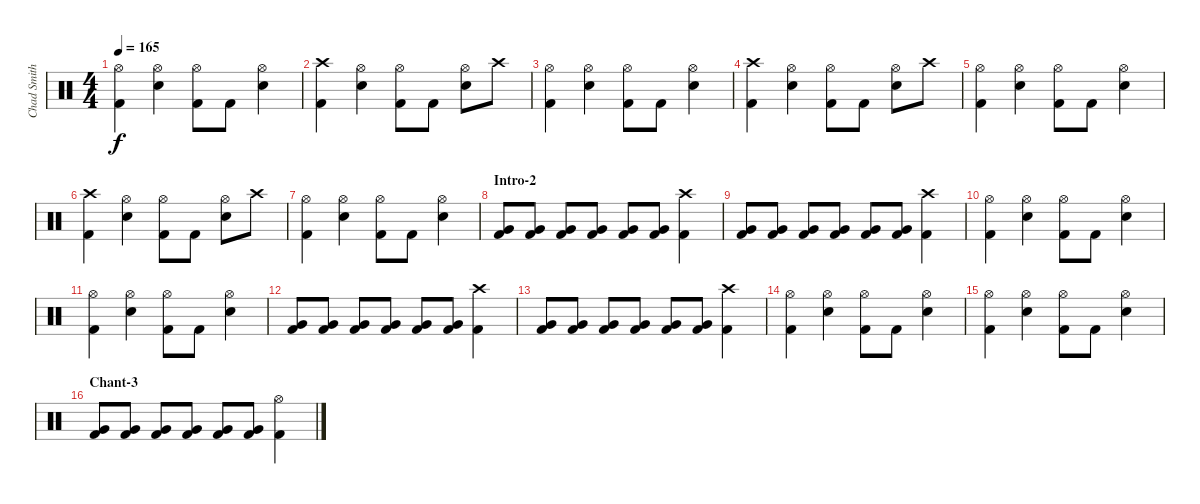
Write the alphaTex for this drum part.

\track ("Chad Smith" "Chad Smith") {instrument percussion}
\staff {score}
\articulation defaults
\ts (4 4)
\tempo 165
\clef neutral
\ks c
("Hi-Hat (open)" "Kick (hit) 2").4{dy f} ("Hi-Hat (open)" "Snare (hit) 2").4 ("Hi-Hat (open)" "Kick (hit) 2").8 "Kick (hit) 2".8 ("Hi-Hat (open)" "Snare (hit) 2").4 |
("Crash high (hit)" "Kick (hit) 2").4 ("Hi-Hat (open)" "Snare (hit) 2").4 ("Hi-Hat (open)" "Kick (hit) 2").8 "Kick (hit) 2".8 ("Hi-Hat (open)" "Snare (hit) 2").8 "Crash high (hit)".8 |
("Hi-Hat (open)" "Kick (hit) 2").4 ("Hi-Hat (open)" "Snare (hit) 2").4 ("Hi-Hat (open)" "Kick (hit) 2").8 "Kick (hit) 2".8 ("Hi-Hat (open)" "Snare (hit) 2").4 |
("Crash high (hit)" "Kick (hit) 2").4 ("Hi-Hat (open)" "Snare (hit) 2").4 ("Hi-Hat (open)" "Kick (hit) 2").8 "Kick (hit) 2".8 ("Hi-Hat (open)" "Snare (hit) 2").8 "Crash high (hit)".8 |
("Hi-Hat (open)" "Kick (hit) 2").4 ("Hi-Hat (open)" "Snare (hit) 2").4 ("Hi-Hat (open)" "Kick (hit) 2").8 "Kick (hit) 2".8 ("Hi-Hat (open)" "Snare (hit) 2").4 |
("Crash high (hit)" "Kick (hit) 2").4 ("Hi-Hat (open)" "Snare (hit) 2").4 ("Hi-Hat (open)" "Kick (hit) 2").8 "Kick (hit) 2".8 ("Hi-Hat (open)" "Snare (hit) 2").8 "Crash high (hit)".8 |
("Hi-Hat (open)" "Kick (hit) 2").4 ("Hi-Hat (open)" "Snare (hit) 2").4 ("Hi-Hat (open)" "Kick (hit) 2").8 "Kick (hit) 2".8 ("Hi-Hat (open)" "Snare (hit) 2").4 |
\section ("" "Intro-2")
("Kick (hit) 2" "Very Low Tom (hit)").8 ("Kick (hit) 2" "Very Low Tom (hit)").8 ("Kick (hit) 2" "Very Low Tom (hit)").8 ("Kick (hit) 2" "Very Low Tom (hit)").8 ("Kick (hit) 2" "Very Low Tom (hit)").8 ("Kick (hit) 2" "Very Low Tom (hit)").8 ("Crash high (hit)" "Kick (hit) 2").4 |
("Kick (hit) 2" "Very Low Tom (hit)").8 ("Kick (hit) 2" "Very Low Tom (hit)").8 ("Kick (hit) 2" "Very Low Tom (hit)").8 ("Kick (hit) 2" "Very Low Tom (hit)").8 ("Kick (hit) 2" "Very Low Tom (hit)").8 ("Kick (hit) 2" "Very Low Tom (hit)").8 ("Crash high (hit)" "Kick (hit) 2").4 |
("Hi-Hat (open)" "Kick (hit) 2").4 ("Hi-Hat (open)" "Snare (hit) 2").4 ("Hi-Hat (open)" "Kick (hit) 2").8 "Kick (hit) 2".8 ("Hi-Hat (open)" "Snare (hit) 2").4 |
("Hi-Hat (open)" "Kick (hit) 2").4 ("Hi-Hat (open)" "Snare (hit) 2").4 ("Hi-Hat (open)" "Kick (hit) 2").8 "Kick (hit) 2".8 ("Hi-Hat (open)" "Snare (hit) 2").4 |
("Kick (hit) 2" "Very Low Tom (hit)").8 ("Kick (hit) 2" "Very Low Tom (hit)").8 ("Kick (hit) 2" "Very Low Tom (hit)").8 ("Kick (hit) 2" "Very Low Tom (hit)").8 ("Kick (hit) 2" "Very Low Tom (hit)").8 ("Kick (hit) 2" "Very Low Tom (hit)").8 ("Crash high (hit)" "Kick (hit) 2").4 |
("Kick (hit) 2" "Very Low Tom (hit)").8 ("Kick (hit) 2" "Very Low Tom (hit)").8 ("Kick (hit) 2" "Very Low Tom (hit)").8 ("Kick (hit) 2" "Very Low Tom (hit)").8 ("Kick (hit) 2" "Very Low Tom (hit)").8 ("Kick (hit) 2" "Very Low Tom (hit)").8 ("Crash high (hit)" "Kick (hit) 2").4 |
("Hi-Hat (open)" "Kick (hit) 2").4 ("Hi-Hat (open)" "Snare (hit) 2").4 ("Hi-Hat (open)" "Kick (hit) 2").8 "Kick (hit) 2".8 ("Hi-Hat (open)" "Snare (hit) 2").4 |
("Hi-Hat (open)" "Kick (hit) 2").4 ("Hi-Hat (open)" "Snare (hit) 2").4 ("Hi-Hat (open)" "Kick (hit) 2").8 "Kick (hit) 2".8 ("Hi-Hat (open)" "Snare (hit) 2").4 |
\section ("" "Chant-3")
("Kick (hit) 2" "Very Low Tom (hit)").8 ("Kick (hit) 2" "Very Low Tom (hit)").8 ("Kick (hit) 2" "Very Low Tom (hit)").8 ("Kick (hit) 2" "Very Low Tom (hit)").8 ("Kick (hit) 2" "Very Low Tom (hit)").8 ("Kick (hit) 2" "Very Low Tom (hit)").8 ("Hi-Hat (open)" "Kick (hit) 2").4
